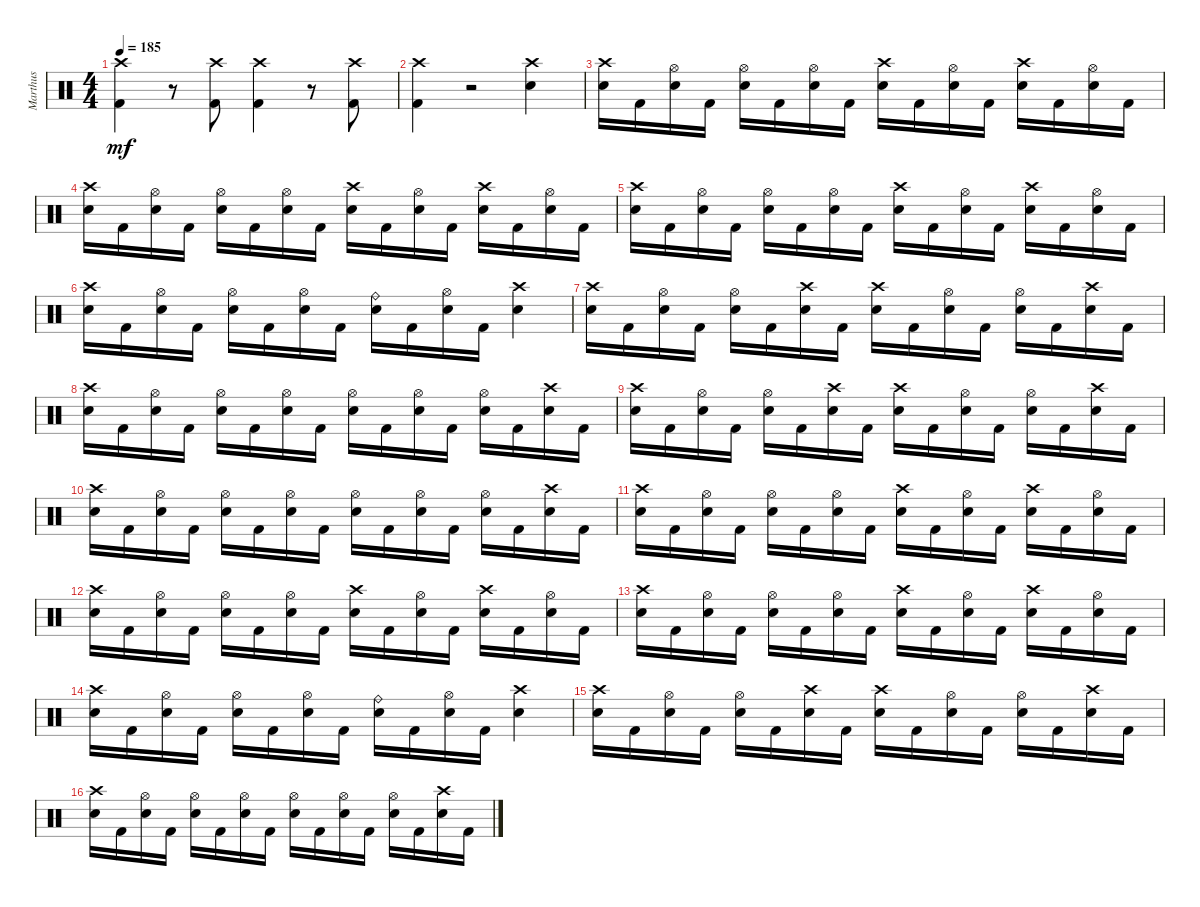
\track ("Marthus" "Marthus") {instrument percussion}
\staff {score}
\articulation defaults
\ts (4 4)
\tempo 185
\clef neutral
\ks c
("Crash high (hit)" "Kick (hit) 2").4{dy mf} r.8 ("Crash high (hit)" "Kick (hit) 2").8 ("Crash high (hit)" "Kick (hit) 2").4 r.8 ("Crash high (hit)" "Kick (hit) 2").8 |
("Crash high (hit)" "Kick (hit) 2").4 r.2 ("Crash high (hit)" "Electric Snare (hit)").4 |
("Crash high (hit)" "Electric Snare (hit)").16 "Kick (hit) 2".16 ("Hi-Hat (open)" "Electric Snare (hit)").16 "Kick (hit) 2".16 ("Hi-Hat (open)" "Electric Snare (hit)").16 "Kick (hit) 2".16 ("Hi-Hat (open)" "Electric Snare (hit)").16 "Kick (hit) 2".16 ("Crash high (hit)" "Electric Snare (hit)").16 "Kick (hit) 2".16 ("Hi-Hat (open)" "Electric Snare (hit)").16 "Kick (hit) 2".16 ("Crash high (hit)" "Electric Snare (hit)").16 "Kick (hit) 2".16 ("Hi-Hat (open)" "Electric Snare (hit)").16 "Kick (hit) 2".16 |
("Crash high (hit)" "Electric Snare (hit)").16 "Kick (hit) 2".16 ("Hi-Hat (open)" "Electric Snare (hit)").16 "Kick (hit) 2".16 ("Hi-Hat (open)" "Electric Snare (hit)").16 "Kick (hit) 2".16 ("Hi-Hat (open)" "Electric Snare (hit)").16 "Kick (hit) 2".16 ("Crash high (hit)" "Electric Snare (hit)").16 "Kick (hit) 2".16 ("Hi-Hat (open)" "Electric Snare (hit)").16 "Kick (hit) 2".16 ("Crash high (hit)" "Electric Snare (hit)").16 "Kick (hit) 2".16 ("Hi-Hat (open)" "Electric Snare (hit)").16 "Kick (hit) 2".16 |
("Crash high (hit)" "Electric Snare (hit)").16 "Kick (hit) 2".16 ("Hi-Hat (open)" "Electric Snare (hit)").16 "Kick (hit) 2".16 ("Hi-Hat (open)" "Electric Snare (hit)").16 "Kick (hit) 2".16 ("Hi-Hat (open)" "Electric Snare (hit)").16 "Kick (hit) 2".16 ("Crash high (hit)" "Electric Snare (hit)").16 "Kick (hit) 2".16 ("Hi-Hat (open)" "Electric Snare (hit)").16 "Kick (hit) 2".16 ("Crash high (hit)" "Electric Snare (hit)").16 "Kick (hit) 2".16 ("Hi-Hat (open)" "Electric Snare (hit)").16 "Kick (hit) 2".16 |
("Crash high (hit)" "Electric Snare (hit)").16 "Kick (hit) 2".16 ("Hi-Hat (open)" "Electric Snare (hit)").16 "Kick (hit) 2".16 ("Hi-Hat (open)" "Electric Snare (hit)").16 "Kick (hit) 2".16 ("Hi-Hat (open)" "Electric Snare (hit)").16 "Kick (hit) 2".16 ("Ride (bell)" "Electric Snare (hit)").16 "Kick (hit) 2".16 ("Hi-Hat (open)" "Electric Snare (hit)").16 "Kick (hit) 2".16 ("Crash high (hit)" "Electric Snare (hit)").4 |
("Crash high (hit)" "Electric Snare (hit)").16 "Kick (hit) 2".16 ("Hi-Hat (open)" "Electric Snare (hit)").16 "Kick (hit) 2".16 ("Hi-Hat (open)" "Electric Snare (hit)").16 "Kick (hit) 2".16 ("Crash high (hit)" "Electric Snare (hit)").16 "Kick (hit) 2".16 ("Crash high (hit)" "Electric Snare (hit)").16 "Kick (hit) 2".16 ("Hi-Hat (open)" "Electric Snare (hit)").16 "Kick (hit) 2".16 ("Hi-Hat (open)" "Electric Snare (hit)").16 "Kick (hit) 2".16 ("Crash high (hit)" "Electric Snare (hit)").16 "Kick (hit) 2".16 |
("Crash high (hit)" "Electric Snare (hit)").16 "Kick (hit) 2".16 ("Hi-Hat (open)" "Electric Snare (hit)").16 "Kick (hit) 2".16 ("Hi-Hat (open)" "Electric Snare (hit)").16 "Kick (hit) 2".16 ("Hi-Hat (open)" "Electric Snare (hit)").16 "Kick (hit) 2".16 ("Hi-Hat (open)" "Electric Snare (hit)").16 "Kick (hit) 2".16 ("Hi-Hat (open)" "Electric Snare (hit)").16 "Kick (hit) 2".16 ("Hi-Hat (open)" "Electric Snare (hit)").16 "Kick (hit) 2".16 ("Crash high (hit)" "Electric Snare (hit)").16 "Kick (hit) 2".16 |
("Crash high (hit)" "Electric Snare (hit)").16 "Kick (hit) 2".16 ("Hi-Hat (open)" "Electric Snare (hit)").16 "Kick (hit) 2".16 ("Hi-Hat (open)" "Electric Snare (hit)").16 "Kick (hit) 2".16 ("Crash high (hit)" "Electric Snare (hit)").16 "Kick (hit) 2".16 ("Crash high (hit)" "Electric Snare (hit)").16 "Kick (hit) 2".16 ("Hi-Hat (open)" "Electric Snare (hit)").16 "Kick (hit) 2".16 ("Hi-Hat (open)" "Electric Snare (hit)").16 "Kick (hit) 2".16 ("Crash high (hit)" "Electric Snare (hit)").16 "Kick (hit) 2".16 |
("Crash high (hit)" "Electric Snare (hit)").16 "Kick (hit) 2".16 ("Hi-Hat (open)" "Electric Snare (hit)").16 "Kick (hit) 2".16 ("Hi-Hat (open)" "Electric Snare (hit)").16 "Kick (hit) 2".16 ("Hi-Hat (open)" "Electric Snare (hit)").16 "Kick (hit) 2".16 ("Hi-Hat (open)" "Electric Snare (hit)").16 "Kick (hit) 2".16 ("Hi-Hat (open)" "Electric Snare (hit)").16 "Kick (hit) 2".16 ("Hi-Hat (open)" "Electric Snare (hit)").16 "Kick (hit) 2".16 ("Crash high (hit)" "Electric Snare (hit)").16 "Kick (hit) 2".16 |
("Crash high (hit)" "Electric Snare (hit)").16 "Kick (hit) 2".16 ("Hi-Hat (open)" "Electric Snare (hit)").16 "Kick (hit) 2".16 ("Hi-Hat (open)" "Electric Snare (hit)").16 "Kick (hit) 2".16 ("Hi-Hat (open)" "Electric Snare (hit)").16 "Kick (hit) 2".16 ("Crash high (hit)" "Electric Snare (hit)").16 "Kick (hit) 2".16 ("Hi-Hat (open)" "Electric Snare (hit)").16 "Kick (hit) 2".16 ("Crash high (hit)" "Electric Snare (hit)").16 "Kick (hit) 2".16 ("Hi-Hat (open)" "Electric Snare (hit)").16 "Kick (hit) 2".16 |
("Crash high (hit)" "Electric Snare (hit)").16 "Kick (hit) 2".16 ("Hi-Hat (open)" "Electric Snare (hit)").16 "Kick (hit) 2".16 ("Hi-Hat (open)" "Electric Snare (hit)").16 "Kick (hit) 2".16 ("Hi-Hat (open)" "Electric Snare (hit)").16 "Kick (hit) 2".16 ("Crash high (hit)" "Electric Snare (hit)").16 "Kick (hit) 2".16 ("Hi-Hat (open)" "Electric Snare (hit)").16 "Kick (hit) 2".16 ("Crash high (hit)" "Electric Snare (hit)").16 "Kick (hit) 2".16 ("Hi-Hat (open)" "Electric Snare (hit)").16 "Kick (hit) 2".16 |
("Crash high (hit)" "Electric Snare (hit)").16 "Kick (hit) 2".16 ("Hi-Hat (open)" "Electric Snare (hit)").16 "Kick (hit) 2".16 ("Hi-Hat (open)" "Electric Snare (hit)").16 "Kick (hit) 2".16 ("Hi-Hat (open)" "Electric Snare (hit)").16 "Kick (hit) 2".16 ("Crash high (hit)" "Electric Snare (hit)").16 "Kick (hit) 2".16 ("Hi-Hat (open)" "Electric Snare (hit)").16 "Kick (hit) 2".16 ("Crash high (hit)" "Electric Snare (hit)").16 "Kick (hit) 2".16 ("Hi-Hat (open)" "Electric Snare (hit)").16 "Kick (hit) 2".16 |
("Crash high (hit)" "Electric Snare (hit)").16 "Kick (hit) 2".16 ("Hi-Hat (open)" "Electric Snare (hit)").16 "Kick (hit) 2".16 ("Hi-Hat (open)" "Electric Snare (hit)").16 "Kick (hit) 2".16 ("Hi-Hat (open)" "Electric Snare (hit)").16 "Kick (hit) 2".16 ("Ride (bell)" "Electric Snare (hit)").16 "Kick (hit) 2".16 ("Hi-Hat (open)" "Electric Snare (hit)").16 "Kick (hit) 2".16 ("Crash high (hit)" "Electric Snare (hit)").4 |
("Crash high (hit)" "Electric Snare (hit)").16 "Kick (hit) 2".16 ("Hi-Hat (open)" "Electric Snare (hit)").16 "Kick (hit) 2".16 ("Hi-Hat (open)" "Electric Snare (hit)").16 "Kick (hit) 2".16 ("Crash high (hit)" "Electric Snare (hit)").16 "Kick (hit) 2".16 ("Crash high (hit)" "Electric Snare (hit)").16 "Kick (hit) 2".16 ("Hi-Hat (open)" "Electric Snare (hit)").16 "Kick (hit) 2".16 ("Hi-Hat (open)" "Electric Snare (hit)").16 "Kick (hit) 2".16 ("Crash high (hit)" "Electric Snare (hit)").16 "Kick (hit) 2".16 |
("Crash high (hit)" "Electric Snare (hit)").16 "Kick (hit) 2".16 ("Hi-Hat (open)" "Electric Snare (hit)").16 "Kick (hit) 2".16 ("Hi-Hat (open)" "Electric Snare (hit)").16 "Kick (hit) 2".16 ("Hi-Hat (open)" "Electric Snare (hit)").16 "Kick (hit) 2".16 ("Hi-Hat (open)" "Electric Snare (hit)").16 "Kick (hit) 2".16 ("Hi-Hat (open)" "Electric Snare (hit)").16 "Kick (hit) 2".16 ("Hi-Hat (open)" "Electric Snare (hit)").16 "Kick (hit) 2".16 ("Crash high (hit)" "Electric Snare (hit)").16 "Kick (hit) 2".16
